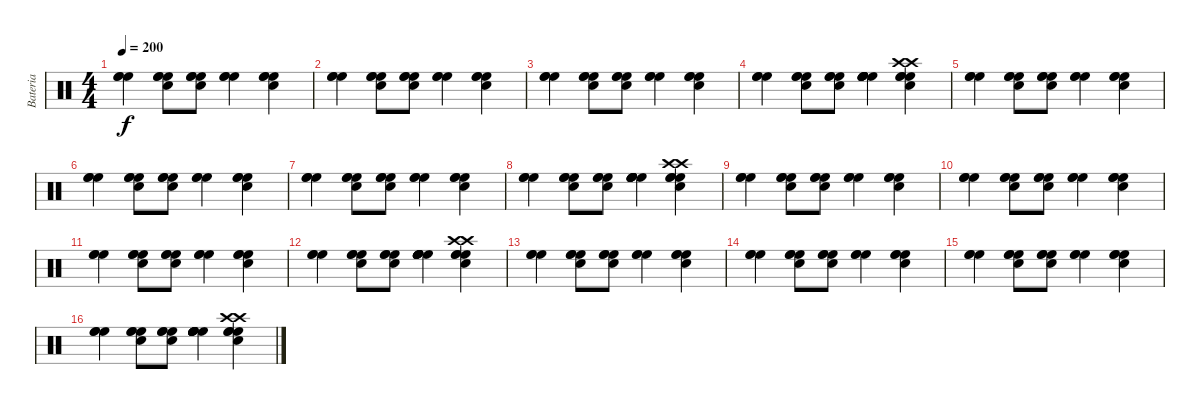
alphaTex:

\track ("Bateria" "Bateria") {instrument percussion}
\staff {score}
\articulation defaults
\ts (4 4)
\tempo 200
\clef neutral
\ks c
("High Floor Tom (hit)" "High Floor Tom (hit)" "High Floor Tom (hit)").4{dy f} ("Snare (hit) 2" "High Floor Tom (hit)" "High Floor Tom (hit)" "High Floor Tom (hit)").8 ("Snare (hit) 2" "High Floor Tom (hit)" "High Floor Tom (hit)" "High Floor Tom (hit)").8 ("High Floor Tom (hit)" "High Floor Tom (hit)" "High Floor Tom (hit)").4 ("Snare (hit) 2" "High Floor Tom (hit)" "High Floor Tom (hit)" "High Floor Tom (hit)").4 |
("High Floor Tom (hit)" "High Floor Tom (hit)" "High Floor Tom (hit)").4 ("Snare (hit) 2" "High Floor Tom (hit)" "High Floor Tom (hit)" "High Floor Tom (hit)").8 ("Snare (hit) 2" "High Floor Tom (hit)" "High Floor Tom (hit)" "High Floor Tom (hit)").8 ("High Floor Tom (hit)" "High Floor Tom (hit)" "High Floor Tom (hit)").4 ("Snare (hit) 2" "High Floor Tom (hit)" "High Floor Tom (hit)" "High Floor Tom (hit)").4 |
("High Floor Tom (hit)" "High Floor Tom (hit)" "High Floor Tom (hit)").4 ("Snare (hit) 2" "High Floor Tom (hit)" "High Floor Tom (hit)" "High Floor Tom (hit)").8 ("Snare (hit) 2" "High Floor Tom (hit)" "High Floor Tom (hit)" "High Floor Tom (hit)").8 ("High Floor Tom (hit)" "High Floor Tom (hit)" "High Floor Tom (hit)").4 ("Snare (hit) 2" "High Floor Tom (hit)" "High Floor Tom (hit)" "High Floor Tom (hit)").4 |
("High Floor Tom (hit)" "High Floor Tom (hit)" "High Floor Tom (hit)").4 ("Snare (hit) 2" "High Floor Tom (hit)" "High Floor Tom (hit)" "High Floor Tom (hit)").8 ("Snare (hit) 2" "High Floor Tom (hit)" "High Floor Tom (hit)" "High Floor Tom (hit)").8 ("High Floor Tom (hit)" "High Floor Tom (hit)" "High Floor Tom (hit)" "High Floor Tom (hit)" "High Floor Tom (hit)" "High Floor Tom (hit)").4 ("Crash high (hit)" "Crash high (hit)" "Snare (hit) 2" "High Floor Tom (hit)" "High Floor Tom (hit)" "High Floor Tom (hit)").4 |
("High Floor Tom (hit)" "High Floor Tom (hit)" "High Floor Tom (hit)").4 ("Snare (hit) 2" "High Floor Tom (hit)" "High Floor Tom (hit)" "High Floor Tom (hit)").8 ("Snare (hit) 2" "High Floor Tom (hit)" "High Floor Tom (hit)" "High Floor Tom (hit)").8 ("High Floor Tom (hit)" "High Floor Tom (hit)" "High Floor Tom (hit)").4 ("Snare (hit) 2" "High Floor Tom (hit)" "High Floor Tom (hit)" "High Floor Tom (hit)").4 |
("High Floor Tom (hit)" "High Floor Tom (hit)" "High Floor Tom (hit)").4 ("Snare (hit) 2" "High Floor Tom (hit)" "High Floor Tom (hit)" "High Floor Tom (hit)").8 ("Snare (hit) 2" "High Floor Tom (hit)" "High Floor Tom (hit)" "High Floor Tom (hit)").8 ("High Floor Tom (hit)" "High Floor Tom (hit)" "High Floor Tom (hit)").4 ("Snare (hit) 2" "High Floor Tom (hit)" "High Floor Tom (hit)" "High Floor Tom (hit)").4 |
("High Floor Tom (hit)" "High Floor Tom (hit)" "High Floor Tom (hit)").4 ("Snare (hit) 2" "High Floor Tom (hit)" "High Floor Tom (hit)" "High Floor Tom (hit)").8 ("Snare (hit) 2" "High Floor Tom (hit)" "High Floor Tom (hit)" "High Floor Tom (hit)").8 ("High Floor Tom (hit)" "High Floor Tom (hit)" "High Floor Tom (hit)").4 ("Snare (hit) 2" "High Floor Tom (hit)" "High Floor Tom (hit)" "High Floor Tom (hit)").4 |
("High Floor Tom (hit)" "High Floor Tom (hit)" "High Floor Tom (hit)").4 ("Snare (hit) 2" "High Floor Tom (hit)" "High Floor Tom (hit)" "High Floor Tom (hit)").8 ("Snare (hit) 2" "High Floor Tom (hit)" "High Floor Tom (hit)" "High Floor Tom (hit)").8 ("High Floor Tom (hit)" "High Floor Tom (hit)" "High Floor Tom (hit)" "High Floor Tom (hit)" "High Floor Tom (hit)" "High Floor Tom (hit)").4 ("Crash high (hit)" "Crash high (hit)" "Snare (hit) 2" "High Floor Tom (hit)" "High Floor Tom (hit)" "High Floor Tom (hit)").4 |
("High Floor Tom (hit)" "High Floor Tom (hit)" "High Floor Tom (hit)").4 ("Snare (hit) 2" "High Floor Tom (hit)" "High Floor Tom (hit)" "High Floor Tom (hit)").8 ("Snare (hit) 2" "High Floor Tom (hit)" "High Floor Tom (hit)" "High Floor Tom (hit)").8 ("High Floor Tom (hit)" "High Floor Tom (hit)" "High Floor Tom (hit)").4 ("Snare (hit) 2" "High Floor Tom (hit)" "High Floor Tom (hit)" "High Floor Tom (hit)").4 |
("High Floor Tom (hit)" "High Floor Tom (hit)" "High Floor Tom (hit)").4 ("Snare (hit) 2" "High Floor Tom (hit)" "High Floor Tom (hit)" "High Floor Tom (hit)").8 ("Snare (hit) 2" "High Floor Tom (hit)" "High Floor Tom (hit)" "High Floor Tom (hit)").8 ("High Floor Tom (hit)" "High Floor Tom (hit)" "High Floor Tom (hit)").4 ("Snare (hit) 2" "High Floor Tom (hit)" "High Floor Tom (hit)" "High Floor Tom (hit)").4 |
("High Floor Tom (hit)" "High Floor Tom (hit)" "High Floor Tom (hit)").4 ("Snare (hit) 2" "High Floor Tom (hit)" "High Floor Tom (hit)" "High Floor Tom (hit)").8 ("Snare (hit) 2" "High Floor Tom (hit)" "High Floor Tom (hit)" "High Floor Tom (hit)").8 ("High Floor Tom (hit)" "High Floor Tom (hit)" "High Floor Tom (hit)").4 ("Snare (hit) 2" "High Floor Tom (hit)" "High Floor Tom (hit)" "High Floor Tom (hit)").4 |
("High Floor Tom (hit)" "High Floor Tom (hit)" "High Floor Tom (hit)").4 ("Snare (hit) 2" "High Floor Tom (hit)" "High Floor Tom (hit)" "High Floor Tom (hit)").8 ("Snare (hit) 2" "High Floor Tom (hit)" "High Floor Tom (hit)" "High Floor Tom (hit)").8 ("High Floor Tom (hit)" "High Floor Tom (hit)" "High Floor Tom (hit)" "High Floor Tom (hit)" "High Floor Tom (hit)" "High Floor Tom (hit)").4 ("Crash high (hit)" "Crash high (hit)" "Snare (hit) 2" "High Floor Tom (hit)" "High Floor Tom (hit)" "High Floor Tom (hit)").4 |
("High Floor Tom (hit)" "High Floor Tom (hit)" "High Floor Tom (hit)").4 ("Snare (hit) 2" "High Floor Tom (hit)" "High Floor Tom (hit)" "High Floor Tom (hit)").8 ("Snare (hit) 2" "High Floor Tom (hit)" "High Floor Tom (hit)" "High Floor Tom (hit)").8 ("High Floor Tom (hit)" "High Floor Tom (hit)" "High Floor Tom (hit)").4 ("Snare (hit) 2" "High Floor Tom (hit)" "High Floor Tom (hit)" "High Floor Tom (hit)").4 |
("High Floor Tom (hit)" "High Floor Tom (hit)" "High Floor Tom (hit)").4 ("Snare (hit) 2" "High Floor Tom (hit)" "High Floor Tom (hit)" "High Floor Tom (hit)").8 ("Snare (hit) 2" "High Floor Tom (hit)" "High Floor Tom (hit)" "High Floor Tom (hit)").8 ("High Floor Tom (hit)" "High Floor Tom (hit)" "High Floor Tom (hit)").4 ("Snare (hit) 2" "High Floor Tom (hit)" "High Floor Tom (hit)" "High Floor Tom (hit)").4 |
("High Floor Tom (hit)" "High Floor Tom (hit)" "High Floor Tom (hit)").4 ("Snare (hit) 2" "High Floor Tom (hit)" "High Floor Tom (hit)" "High Floor Tom (hit)").8 ("Snare (hit) 2" "High Floor Tom (hit)" "High Floor Tom (hit)" "High Floor Tom (hit)").8 ("High Floor Tom (hit)" "High Floor Tom (hit)" "High Floor Tom (hit)").4 ("Snare (hit) 2" "High Floor Tom (hit)" "High Floor Tom (hit)" "High Floor Tom (hit)").4 |
("High Floor Tom (hit)" "High Floor Tom (hit)" "High Floor Tom (hit)").4 ("Snare (hit) 2" "High Floor Tom (hit)" "High Floor Tom (hit)" "High Floor Tom (hit)").8 ("Snare (hit) 2" "High Floor Tom (hit)" "High Floor Tom (hit)" "High Floor Tom (hit)").8 ("High Floor Tom (hit)" "High Floor Tom (hit)" "High Floor Tom (hit)" "High Floor Tom (hit)" "High Floor Tom (hit)" "High Floor Tom (hit)").4 ("Crash high (hit)" "Crash high (hit)" "Snare (hit) 2" "High Floor Tom (hit)" "High Floor Tom (hit)" "High Floor Tom (hit)").4
